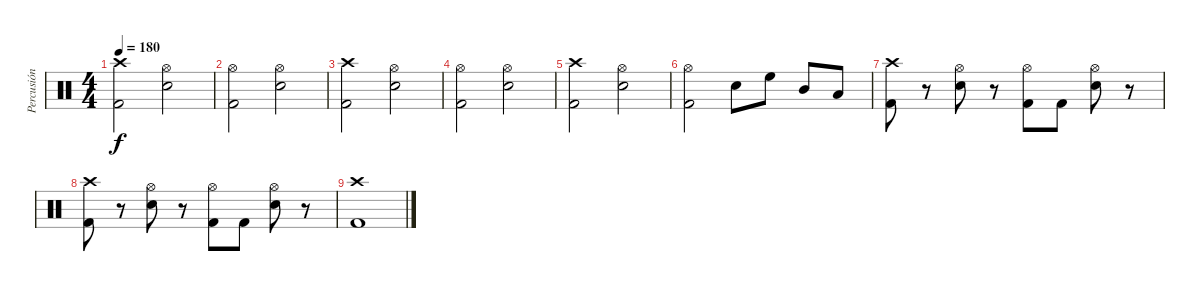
\track ("Percusión" "Percusión") {instrument percussion}
\staff {score}
\articulation defaults
\ts (4 4)
\tempo 180
\clef neutral
\ks c
("Crash high (hit)" "Kick (hit) 2").2{dy f} ("Hi-Hat (open)" "Electric Snare (hit)").2 |
("Hi-Hat (open)" "Kick (hit) 2").2 ("Hi-Hat (open)" "Electric Snare (hit)").2 |
("Crash high (hit)" "Kick (hit) 2").2 ("Hi-Hat (open)" "Electric Snare (hit)").2 |
("Hi-Hat (open)" "Kick (hit) 2").2 ("Hi-Hat (open)" "Electric Snare (hit)").2 |
("Crash high (hit)" "Kick (hit) 2").2 ("Hi-Hat (open)" "Electric Snare (hit)").2 |
("Hi-Hat (open)" "Kick (hit) 2").2 "Electric Snare (hit)".8 "High Floor Tom (hit)".8 "Mid Tom (hit)".8 "Low Tom (hit)".8 |
("Crash high (hit)" "Kick (hit) 2").8 r.8 ("Hi-Hat (open)" "Electric Snare (hit)").8 r.8 ("Hi-Hat (open)" "Kick (hit) 2").8 "Kick (hit) 2".8 ("Hi-Hat (open)" "Electric Snare (hit)").8 r.8 |
("Crash high (hit)" "Kick (hit) 2").8 r.8 ("Hi-Hat (open)" "Electric Snare (hit)").8 r.8 ("Hi-Hat (open)" "Kick (hit) 2").8 "Kick (hit) 2".8 ("Hi-Hat (open)" "Electric Snare (hit)").8 r.8 |
("Crash high (hit)" "Kick (hit) 2").1
